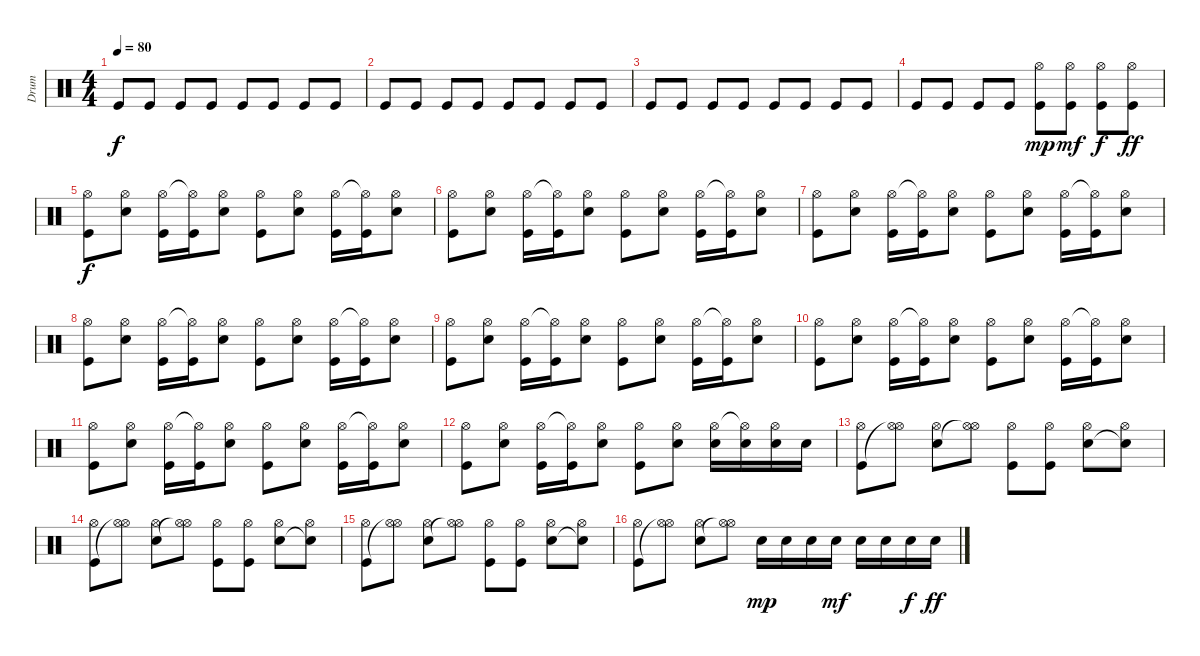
\track ("Drum" "Drum") {instrument percussion}
\staff {score}
\articulation defaults
\ts (4 4)
\tempo 80
\clef neutral
\ks c "Kick (hit)".8{dy f} "Kick (hit)".8 "Kick (hit)".8 "Kick (hit)".8 "Kick (hit)".8 "Kick (hit)".8 "Kick (hit)".8 "Kick (hit)".8
|
"Kick (hit)".8 "Kick (hit)".8 "Kick (hit)".8 "Kick (hit)".8 "Kick (hit)".8 "Kick (hit)".8 "Kick (hit)".8 "Kick (hit)".8 |
"Kick (hit)".8 "Kick (hit)".8 "Kick (hit)".8 "Kick (hit)".8 "Kick (hit)".8 "Kick (hit)".8 "Kick (hit)".8 "Kick (hit)".8 |
"Kick (hit)".8 "Kick (hit)".8 "Kick (hit)".8 "Kick (hit)".8 ("Hi-Hat (open)" "Kick (hit)").8{dy mp} ("Hi-Hat (open)" "Kick (hit)").8{dy mf} ("Hi-Hat (open)" "Kick (hit)").8{dy f} ("Hi-Hat (open)" "Kick (hit)").8{dy ff} |
("Hi-Hat (open)" "Kick (hit)").8{dy f} ("Hi-Hat (open)" "Electric Snare (hit)").8 ("Hi-Hat (open)" "Kick (hit)").16 ("Hi-Hat (open)"{t} "Kick (hit)").16 ("Hi-Hat (open)" "Electric Snare (hit)").8 ("Hi-Hat (open)" "Kick (hit)").8 ("Hi-Hat (open)" "Electric Snare (hit)").8 ("Hi-Hat (open)" "Kick (hit)").16 ("Hi-Hat (open)"{t} "Kick (hit)").16 ("Hi-Hat (open)" "Electric Snare (hit)").8 |
("Hi-Hat (open)" "Kick (hit)").8 ("Hi-Hat (open)" "Electric Snare (hit)").8 ("Hi-Hat (open)" "Kick (hit)").16 ("Hi-Hat (open)"{t} "Kick (hit)").16 ("Hi-Hat (open)" "Electric Snare (hit)").8 ("Hi-Hat (open)" "Kick (hit)").8 ("Hi-Hat (open)" "Electric Snare (hit)").8 ("Hi-Hat (open)" "Kick (hit)").16 ("Hi-Hat (open)"{t} "Kick (hit)").16 ("Hi-Hat (open)" "Electric Snare (hit)").8 |
("Hi-Hat (open)" "Kick (hit)").8 ("Hi-Hat (open)" "Electric Snare (hit)").8 ("Hi-Hat (open)" "Kick (hit)").16 ("Hi-Hat (open)"{t} "Kick (hit)").16 ("Hi-Hat (open)" "Electric Snare (hit)").8 ("Hi-Hat (open)" "Kick (hit)").8 ("Hi-Hat (open)" "Electric Snare (hit)").8 ("Hi-Hat (open)" "Kick (hit)").16 ("Hi-Hat (open)"{t} "Kick (hit)").16 ("Hi-Hat (open)" "Electric Snare (hit)").8 |
("Hi-Hat (open)" "Kick (hit)").8 ("Hi-Hat (open)" "Electric Snare (hit)").8 ("Hi-Hat (open)" "Kick (hit)").16 ("Hi-Hat (open)"{t} "Kick (hit)").16 ("Hi-Hat (open)" "Electric Snare (hit)").8 ("Hi-Hat (open)" "Kick (hit)").8 ("Hi-Hat (open)" "Electric Snare (hit)").8 ("Hi-Hat (open)" "Kick (hit)").16 ("Hi-Hat (open)"{t} "Kick (hit)").16 ("Hi-Hat (open)" "Electric Snare (hit)").8 |
("Hi-Hat (open)" "Kick (hit)").8 ("Hi-Hat (open)" "Electric Snare (hit)").8 ("Hi-Hat (open)" "Kick (hit)").16 ("Hi-Hat (open)"{t} "Kick (hit)").16 ("Hi-Hat (open)" "Electric Snare (hit)").8 ("Hi-Hat (open)" "Kick (hit)").8 ("Hi-Hat (open)" "Electric Snare (hit)").8 ("Hi-Hat (open)" "Kick (hit)").16 ("Hi-Hat (open)"{t} "Kick (hit)").16 ("Hi-Hat (open)" "Electric Snare (hit)").8 |
("Hi-Hat (open)" "Kick (hit)").8 ("Hi-Hat (open)" "Electric Snare (hit)").8 ("Hi-Hat (open)" "Kick (hit)").16 ("Hi-Hat (open)"{t} "Kick (hit)").16 ("Hi-Hat (open)" "Electric Snare (hit)").8 ("Hi-Hat (open)" "Kick (hit)").8 ("Hi-Hat (open)" "Electric Snare (hit)").8 ("Hi-Hat (open)" "Kick (hit)").16 ("Hi-Hat (open)"{t} "Kick (hit)").16 ("Hi-Hat (open)" "Electric Snare (hit)").8 |
("Hi-Hat (open)" "Kick (hit)").8 ("Hi-Hat (open)" "Electric Snare (hit)").8 ("Hi-Hat (open)" "Kick (hit)").16 ("Hi-Hat (open)"{t} "Kick (hit)").16 ("Hi-Hat (open)" "Electric Snare (hit)").8 ("Hi-Hat (open)" "Kick (hit)").8 ("Hi-Hat (open)" "Electric Snare (hit)").8 ("Hi-Hat (open)" "Kick (hit)").16 ("Hi-Hat (open)"{t} "Kick (hit)").16 ("Hi-Hat (open)" "Electric Snare (hit)").8 |
("Hi-Hat (open)" "Kick (hit)").8 ("Hi-Hat (open)" "Electric Snare (hit)").8 ("Hi-Hat (open)" "Kick (hit)").16 ("Hi-Hat (open)"{t} "Kick (hit)").16 ("Hi-Hat (open)" "Electric Snare (hit)").8 ("Hi-Hat (open)" "Kick (hit)").8 ("Hi-Hat (open)" "Electric Snare (hit)").8 ("Hi-Hat (open)" "Electric Snare (hit)").16 ("Hi-Hat (open)"{t} "Electric Snare (hit)").16 ("Hi-Hat (open)" "Electric Snare (hit)").16 "Electric Snare (hit)".16 |
("Hi-Hat (open)" "Kick (hit)").8 ("Hi-Hat (open)" "Hi-Hat (open)"{t}).8 ("Electric Snare (hit)" "Hi-Hat (open)").8 ("Hi-Hat (open)"{t} "Hi-Hat (open)").8 ("Hi-Hat (open)" "Kick (hit)").8 ("Hi-Hat (open)" "Kick (hit)").8 ("Hi-Hat (open)" "Electric Snare (hit)").8 ("Hi-Hat (open)" "Electric Snare (hit)"{t}).8 |
("Hi-Hat (open)" "Kick (hit)").8 ("Hi-Hat (open)" "Hi-Hat (open)"{t}).8 ("Electric Snare (hit)" "Hi-Hat (open)").8 ("Hi-Hat (open)"{t} "Hi-Hat (open)").8 ("Hi-Hat (open)" "Kick (hit)").8 ("Hi-Hat (open)" "Kick (hit)").8 ("Hi-Hat (open)" "Electric Snare (hit)").8 ("Hi-Hat (open)" "Electric Snare (hit)"{t}).8 |
("Hi-Hat (open)" "Kick (hit)").8 ("Hi-Hat (open)" "Hi-Hat (open)"{t}).8 ("Electric Snare (hit)" "Hi-Hat (open)").8 ("Hi-Hat (open)"{t} "Hi-Hat (open)").8 ("Hi-Hat (open)" "Kick (hit)").8 ("Hi-Hat (open)" "Kick (hit)").8 ("Hi-Hat (open)" "Electric Snare (hit)").8 ("Hi-Hat (open)" "Electric Snare (hit)"{t}).8 |
("Hi-Hat (open)" "Kick (hit)").8 ("Hi-Hat (open)" "Hi-Hat (open)"{t}).8 ("Electric Snare (hit)" "Hi-Hat (open)").8 ("Hi-Hat (open)"{t} "Hi-Hat (open)").8 "Electric Snare (hit)".16{dy mp} "Electric Snare (hit)".16 "Electric Snare (hit)".16 "Electric Snare (hit)".16{dy mf} "Electric Snare (hit)".16 "Electric Snare (hit)".16 "Electric Snare (hit)".16{dy f} "Electric Snare (hit)".16{dy ff}
